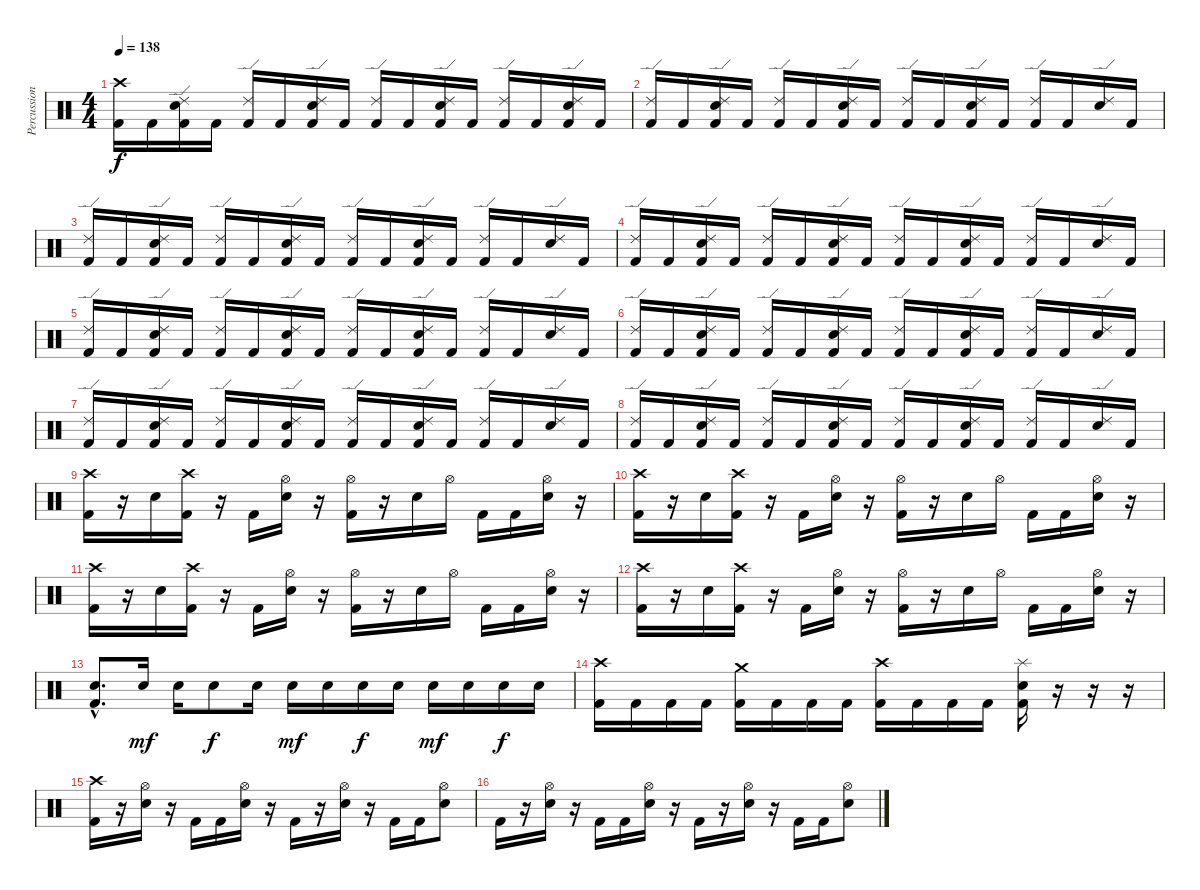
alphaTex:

\track ("Percussion" "Percussion") {instrument percussion}
\staff {score}
\articulation defaults
\ts (4 4)
\tempo 138
\clef neutral
\ks c
("Crash high (hit)" "Kick (hit) 2").16{dy f} "Kick (hit) 2".16 ("Ride (edge) 2" "Electric Snare (hit)" "Kick (hit) 2").16 "Kick (hit) 2".16 ("Ride (edge) 2" "Kick (hit) 2").16 "Kick (hit) 2".16 ("Ride (edge) 2" "Electric Snare (hit)" "Kick (hit) 2").16 "Kick (hit) 2".16 ("Ride (edge) 2" "Kick (hit) 2").16 "Kick (hit) 2".16 ("Ride (edge) 2" "Electric Snare (hit)" "Kick (hit) 2").16 "Kick (hit) 2".16 ("Ride (edge) 2" "Kick (hit) 2").16 "Kick (hit) 2".16 ("Ride (edge) 2" "Electric Snare (hit)" "Kick (hit) 2").16 "Kick (hit) 2".16 |
("Ride (edge) 2" "Kick (hit) 2").16 "Kick (hit) 2".16 ("Ride (edge) 2" "Electric Snare (hit)" "Kick (hit) 2").16 "Kick (hit) 2".16 ("Ride (edge) 2" "Kick (hit) 2").16 "Kick (hit) 2".16 ("Ride (edge) 2" "Electric Snare (hit)" "Kick (hit) 2").16 "Kick (hit) 2".16 ("Ride (edge) 2" "Kick (hit) 2").16 "Kick (hit) 2".16 ("Ride (edge) 2" "Electric Snare (hit)" "Kick (hit) 2").16 "Kick (hit) 2".16 ("Ride (edge) 2" "Kick (hit) 2").16 "Kick (hit) 2".16 ("Ride (edge) 2" "Electric Snare (hit)").16 "Kick (hit) 2".16 |
("Ride (edge) 2" "Kick (hit) 2").16 "Kick (hit) 2".16 ("Ride (edge) 2" "Electric Snare (hit)" "Kick (hit) 2").16 "Kick (hit) 2".16 ("Ride (edge) 2" "Kick (hit) 2").16 "Kick (hit) 2".16 ("Ride (edge) 2" "Electric Snare (hit)" "Kick (hit) 2").16 "Kick (hit) 2".16 ("Ride (edge) 2" "Kick (hit) 2").16 "Kick (hit) 2".16 ("Ride (edge) 2" "Electric Snare (hit)" "Kick (hit) 2").16 "Kick (hit) 2".16 ("Ride (edge) 2" "Kick (hit) 2").16 "Kick (hit) 2".16 ("Ride (edge) 2" "Electric Snare (hit)").16 "Kick (hit) 2".16 |
("Ride (edge) 2" "Kick (hit) 2").16 "Kick (hit) 2".16 ("Ride (edge) 2" "Electric Snare (hit)" "Kick (hit) 2").16 "Kick (hit) 2".16 ("Ride (edge) 2" "Kick (hit) 2").16 "Kick (hit) 2".16 ("Ride (edge) 2" "Electric Snare (hit)" "Kick (hit) 2").16 "Kick (hit) 2".16 ("Ride (edge) 2" "Kick (hit) 2").16 "Kick (hit) 2".16 ("Ride (edge) 2" "Electric Snare (hit)" "Kick (hit) 2").16 "Kick (hit) 2".16 ("Ride (edge) 2" "Kick (hit) 2").16 "Kick (hit) 2".16 ("Ride (edge) 2" "Electric Snare (hit)").16 "Kick (hit) 2".16 |
("Ride (edge) 2" "Kick (hit) 2").16 "Kick (hit) 2".16 ("Ride (edge) 2" "Electric Snare (hit)" "Kick (hit) 2").16 "Kick (hit) 2".16 ("Ride (edge) 2" "Kick (hit) 2").16 "Kick (hit) 2".16 ("Ride (edge) 2" "Electric Snare (hit)" "Kick (hit) 2").16 "Kick (hit) 2".16 ("Ride (edge) 2" "Kick (hit) 2").16 "Kick (hit) 2".16 ("Ride (edge) 2" "Electric Snare (hit)" "Kick (hit) 2").16 "Kick (hit) 2".16 ("Ride (edge) 2" "Kick (hit) 2").16 "Kick (hit) 2".16 ("Ride (edge) 2" "Electric Snare (hit)").16 "Kick (hit) 2".16 |
("Ride (edge) 2" "Kick (hit) 2").16 "Kick (hit) 2".16 ("Ride (edge) 2" "Electric Snare (hit)" "Kick (hit) 2").16 "Kick (hit) 2".16 ("Ride (edge) 2" "Kick (hit) 2").16 "Kick (hit) 2".16 ("Ride (edge) 2" "Electric Snare (hit)" "Kick (hit) 2").16 "Kick (hit) 2".16 ("Ride (edge) 2" "Kick (hit) 2").16 "Kick (hit) 2".16 ("Ride (edge) 2" "Electric Snare (hit)" "Kick (hit) 2").16 "Kick (hit) 2".16 ("Ride (edge) 2" "Kick (hit) 2").16 "Kick (hit) 2".16 ("Ride (edge) 2" "Electric Snare (hit)").16 "Kick (hit) 2".16 |
("Ride (edge) 2" "Kick (hit) 2").16 "Kick (hit) 2".16 ("Ride (edge) 2" "Electric Snare (hit)" "Kick (hit) 2").16 "Kick (hit) 2".16 ("Ride (edge) 2" "Kick (hit) 2").16 "Kick (hit) 2".16 ("Ride (edge) 2" "Electric Snare (hit)" "Kick (hit) 2").16 "Kick (hit) 2".16 ("Ride (edge) 2" "Kick (hit) 2").16 "Kick (hit) 2".16 ("Ride (edge) 2" "Electric Snare (hit)" "Kick (hit) 2").16 "Kick (hit) 2".16 ("Ride (edge) 2" "Kick (hit) 2").16 "Kick (hit) 2".16 ("Ride (edge) 2" "Electric Snare (hit)").16 "Kick (hit) 2".16 |
("Ride (edge) 2" "Kick (hit) 2").16 "Kick (hit) 2".16 ("Ride (edge) 2" "Electric Snare (hit)" "Kick (hit) 2").16 "Kick (hit) 2".16 ("Ride (edge) 2" "Kick (hit) 2").16 "Kick (hit) 2".16 ("Ride (edge) 2" "Electric Snare (hit)" "Kick (hit) 2").16 "Kick (hit) 2".16 ("Ride (edge) 2" "Kick (hit) 2").16 "Kick (hit) 2".16 ("Ride (edge) 2" "Electric Snare (hit)" "Kick (hit) 2").16 "Kick (hit) 2".16 ("Ride (edge) 2" "Kick (hit) 2").16 "Kick (hit) 2".16 ("Ride (edge) 2" "Electric Snare (hit)").16 "Kick (hit) 2".16 |
("Crash high (hit)" "Kick (hit) 2").16 r.16 "Electric Snare (hit)".16 ("Crash high (hit)" "Kick (hit) 2").16 r.16 "Kick (hit) 2".16 ("Hi-Hat (open)" "Electric Snare (hit)").16 r.16 ("Hi-Hat (open)" "Kick (hit) 2").16 r.16 "Electric Snare (hit)".16 "Hi-Hat (open)".16 "Kick (hit) 2".16 "Kick (hit) 2".16 ("Hi-Hat (open)" "Electric Snare (hit)").16 r.16 |
("Crash high (hit)" "Kick (hit) 2").16 r.16 "Electric Snare (hit)".16 ("Crash high (hit)" "Kick (hit) 2").16 r.16 "Kick (hit) 2".16 ("Hi-Hat (open)" "Electric Snare (hit)").16 r.16 ("Hi-Hat (open)" "Kick (hit) 2").16 r.16 "Electric Snare (hit)".16 "Hi-Hat (open)".16 "Kick (hit) 2".16 "Kick (hit) 2".16 ("Hi-Hat (open)" "Electric Snare (hit)").16 r.16 |
("Crash high (hit)" "Kick (hit) 2").16 r.16 "Electric Snare (hit)".16 ("Crash high (hit)" "Kick (hit) 2").16 r.16 "Kick (hit) 2".16 ("Hi-Hat (open)" "Electric Snare (hit)").16 r.16 ("Hi-Hat (open)" "Kick (hit) 2").16 r.16 "Electric Snare (hit)".16 "Hi-Hat (open)".16 "Kick (hit) 2".16 "Kick (hit) 2".16 ("Hi-Hat (open)" "Electric Snare (hit)").16 r.16 |
("Crash high (hit)" "Kick (hit) 2").16 r.16 "Electric Snare (hit)".16 ("Crash high (hit)" "Kick (hit) 2").16 r.16 "Kick (hit) 2".16 ("Hi-Hat (open)" "Electric Snare (hit)").16 r.16 ("Hi-Hat (open)" "Kick (hit) 2").16 r.16 "Electric Snare (hit)".16 "Hi-Hat (open)".16 "Kick (hit) 2".16 "Kick (hit) 2".16 ("Hi-Hat (open)" "Electric Snare (hit)").16 r.16 |
("Electric Snare (hit)"{hac} "Kick (hit) 2"{hac}).8{d} "Electric Snare (hit)".16{dy mf} "Electric Snare (hit)".16 "Electric Snare (hit)".8{dy f} "Electric Snare (hit)".16 "Electric Snare (hit)".16{dy mf} "Electric Snare (hit)".16 "Electric Snare (hit)".16{dy f} "Electric Snare (hit)".16 "Electric Snare (hit)".16{dy mf} "Electric Snare (hit)".16 "Electric Snare (hit)".16{dy f} "Electric Snare (hit)".16 |
("Crash high (hit)" "Kick (hit) 2").16 "Kick (hit) 2".16 "Kick (hit) 2".16 "Kick (hit) 2".16 ("Crash medium (hit)" "Kick (hit) 2").16 "Kick (hit) 2".16 "Kick (hit) 2".16 "Kick (hit) 2".16 ("Crash high (hit)" "Kick (hit) 2").16 "Kick (hit) 2".16 "Kick (hit) 2".16 "Kick (hit) 2".16 ("Splash (hit)" "Electric Snare (hit)" "Kick (hit) 2").16 r.16 r.16 r.16 |
("Crash high (hit)" "Kick (hit) 2").16 r.16 ("Hi-Hat (open)" "Electric Snare (hit)").16 r.16 "Kick (hit) 2".16 "Kick (hit) 2".16 ("Hi-Hat (open)" "Electric Snare (hit)").16 r.16 "Kick (hit) 2".16 r.16 ("Hi-Hat (open)" "Electric Snare (hit)").16 r.16 "Kick (hit) 2".16 "Kick (hit) 2".16 ("Hi-Hat (open)" "Electric Snare (hit)").8 |
"Kick (hit) 2".16 r.16 ("Hi-Hat (open)" "Electric Snare (hit)").16 r.16 "Kick (hit) 2".16 "Kick (hit) 2".16 ("Hi-Hat (open)" "Electric Snare (hit)").16 r.16 "Kick (hit) 2".16 r.16 ("Hi-Hat (open)" "Electric Snare (hit)").16 r.16 "Kick (hit) 2".16 "Kick (hit) 2".16 ("Hi-Hat (open)" "Electric Snare (hit)").8
